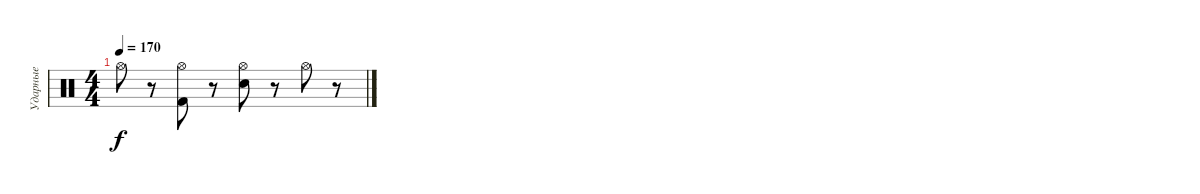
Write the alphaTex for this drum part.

\track ("Ударные" "Ударные") {instrument percussion}
\staff {score}
\articulation defaults
\ts (4 4)
\tempo 170
\clef neutral
\ks c "Hi-Hat (open)".8{dy f}
r.8 ("Hi-Hat (open)" "Kick (hit) 2").8 r.8 ("Hi-Hat (open)" "Electric Snare (hit)").8 r.8 "Hi-Hat (open)".8 r.8
